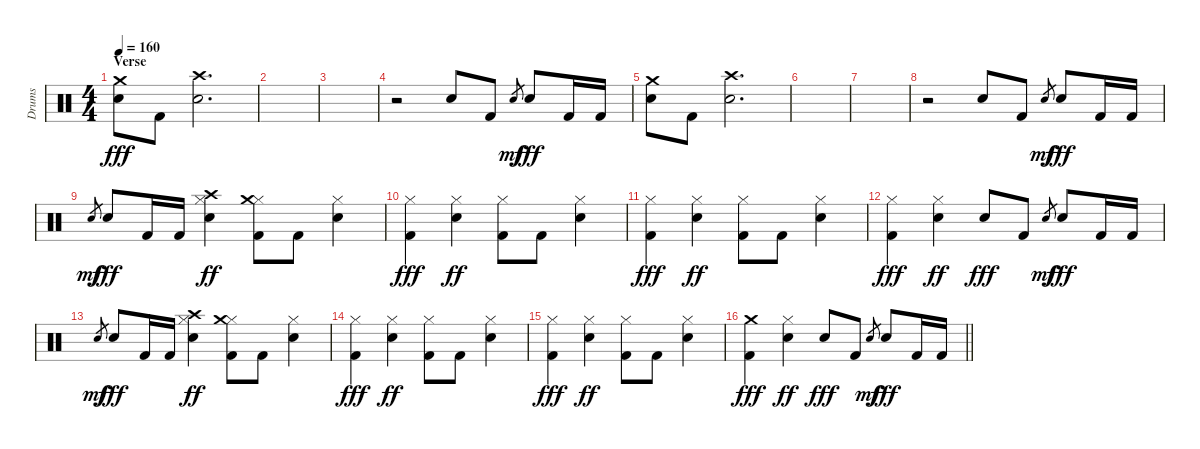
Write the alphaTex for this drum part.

\track ("Drums" "Drums") {instrument percussion}
\staff {score}
\articulation defaults
\ts (4 4)
\section ("" "Verse ")
\tempo 160
\clef neutral
\ks c
("Crash medium (hit)" "Electric Snare (hit)").8{dy fff} "Kick (hit) 2".8 ("Crash high (hit)" "Electric Snare (hit)").2{d} |
|
|
r.2 "Electric Snare (hit)".8 "Kick (hit) 2".8 "Electric Snare (hit)".8{gr dy mf} "Electric Snare (hit)".8{dy fff} "Kick (hit) 2".16 "Kick (hit) 2".16 |
("Crash medium (hit)" "Electric Snare (hit)").8 "Kick (hit) 2".8 ("Crash high (hit)" "Electric Snare (hit)").2{d} |
|
|
r.2 "Electric Snare (hit)".8 "Kick (hit) 2".8 "Electric Snare (hit)".8{gr dy mf} "Electric Snare (hit)".8{dy fff} "Kick (hit) 2".16 "Kick (hit) 2".16 |
"Electric Snare (hit)".8{gr dy mf} "Electric Snare (hit)".8{dy fff} "Kick (hit) 2".16 "Kick (hit) 2".16 ("Hi-Hat (closed)" "Crash high (hit)" "Electric Snare (hit)").4{dy ff} ("Hi-Hat (closed)" "Crash medium (hit)" "Kick (hit) 2").8 "Kick (hit) 2".8 ("Hi-Hat (closed)" "Electric Snare (hit)").4 |
("Hi-Hat (closed)" "Kick (hit) 2").4{dy fff} ("Hi-Hat (closed)" "Electric Snare (hit)").4{dy ff} ("Hi-Hat (closed)" "Kick (hit) 2").8 "Kick (hit) 2".8 ("Hi-Hat (closed)" "Electric Snare (hit)").4 |
("Hi-Hat (closed)" "Kick (hit) 2").4{dy fff} ("Hi-Hat (closed)" "Electric Snare (hit)").4{dy ff} ("Hi-Hat (closed)" "Kick (hit) 2").8 "Kick (hit) 2".8 ("Hi-Hat (closed)" "Electric Snare (hit)").4 |
("Hi-Hat (closed)" "Kick (hit) 2").4{dy fff} ("Hi-Hat (closed)" "Electric Snare (hit)").4{dy ff} "Electric Snare (hit)".8{dy fff} "Kick (hit) 2".8 "Electric Snare (hit)".8{gr dy mf} "Electric Snare (hit)".8{dy fff} "Kick (hit) 2".16 "Kick (hit) 2".16 |
"Electric Snare (hit)".8{gr dy mf} "Electric Snare (hit)".8{dy fff} "Kick (hit) 2".16 "Kick (hit) 2".16 ("Hi-Hat (closed)" "Crash high (hit)" "Electric Snare (hit)").4{dy ff} ("Hi-Hat (closed)" "Crash medium (hit)" "Kick (hit) 2").8 "Kick (hit) 2".8 ("Hi-Hat (closed)" "Electric Snare (hit)").4 |
("Hi-Hat (closed)" "Kick (hit) 2").4{dy fff} ("Hi-Hat (closed)" "Electric Snare (hit)").4{dy ff} ("Hi-Hat (closed)" "Kick (hit) 2").8 "Kick (hit) 2".8 ("Hi-Hat (closed)" "Electric Snare (hit)").4 |
("Hi-Hat (closed)" "Kick (hit) 2").4{dy fff} ("Hi-Hat (closed)" "Electric Snare (hit)").4{dy ff} ("Hi-Hat (closed)" "Kick (hit) 2").8 "Kick (hit) 2".8 ("Hi-Hat (closed)" "Electric Snare (hit)").4 |
\barLineRight lightlight
("Crash medium (hit)" "Kick (hit) 2").4{dy fff} ("Hi-Hat (closed)" "Electric Snare (hit)").4{dy ff} "Electric Snare (hit)".8{dy fff} "Kick (hit) 2".8 "Electric Snare (hit)".8{gr dy mf} "Electric Snare (hit)".8{dy fff} "Kick (hit) 2".16 "Kick (hit) 2".16
